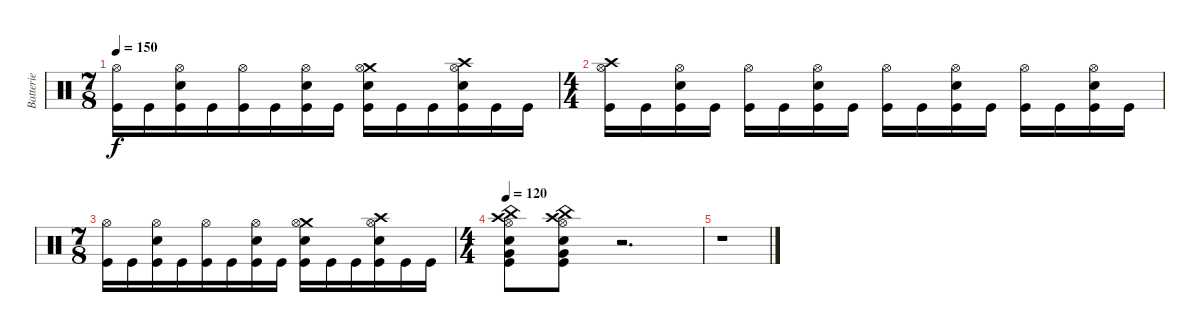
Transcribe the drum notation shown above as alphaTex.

\track ("Batterie" "Batterie") {instrument percussion}
\staff {score}
\articulation defaults
\ts (7 8)
\tempo 150
\clef neutral
\ks c
("Hi-Hat (open)" "Kick (hit)").16{dy f} "Kick (hit)".16 ("Hi-Hat (open)" "Snare (hit) 2" "Kick (hit)").16 "Kick (hit)".16 ("Hi-Hat (open)" "Kick (hit)").16 "Kick (hit)".16 ("Hi-Hat (open)" "Snare (hit) 2" "Kick (hit)").16 "Kick (hit)".16 ("Crash medium (hit)" "Hi-Hat (open)" "Snare (hit) 2" "Kick (hit)").16 "Kick (hit)".16 "Kick (hit)".16 ("Crash high (hit)" "Hi-Hat (open)" "Snare (hit) 2" "Kick (hit)").16 "Kick (hit)".16 "Kick (hit)".16 |
\ts (4 4)
("Crash high (hit)" "Hi-Hat (open)" "Kick (hit)").16 "Kick (hit)".16 ("Hi-Hat (open)" "Snare (hit) 2" "Kick (hit)").16 "Kick (hit)".16 ("Hi-Hat (open)" "Kick (hit)").16 "Kick (hit)".16 ("Hi-Hat (open)" "Snare (hit) 2" "Kick (hit)").16 "Kick (hit)".16 ("Hi-Hat (open)" "Kick (hit)").16 "Kick (hit)".16 ("Hi-Hat (open)" "Snare (hit) 2" "Kick (hit)").16 "Kick (hit)".16 ("Hi-Hat (open)" "Kick (hit)").16 "Kick (hit)".16 ("Hi-Hat (open)" "Snare (hit) 2" "Kick (hit)").16 "Kick (hit)".16 |
\ts (7 8)
("Hi-Hat (open)" "Kick (hit)").16 "Kick (hit)".16 ("Hi-Hat (open)" "Snare (hit) 2" "Kick (hit)").16 "Kick (hit)".16 ("Hi-Hat (open)" "Kick (hit)").16 "Kick (hit)".16 ("Hi-Hat (open)" "Snare (hit) 2" "Kick (hit)").16 "Kick (hit)".16 ("Crash medium (hit)" "Hi-Hat (open)" "Snare (hit) 2" "Kick (hit)").16 "Kick (hit)".16 "Kick (hit)".16 ("Crash high (hit)" "Hi-Hat (open)" "Snare (hit) 2" "Kick (hit)").16 "Kick (hit)".16 "Kick (hit)".16 |
\ts (4 4)
\tempo 120
("Crash high (hit)" "Hi-Hat (open)" "Snare (hit) 2" "Very Low Tom (hit)" "China (hit)" "Kick (hit)").8 ("Crash high (hit)" "Hi-Hat (open)" "Snare (hit) 2" "Very Low Tom (hit)" "China (hit)" "Kick (hit)").8 r.2{d} |
r.1
